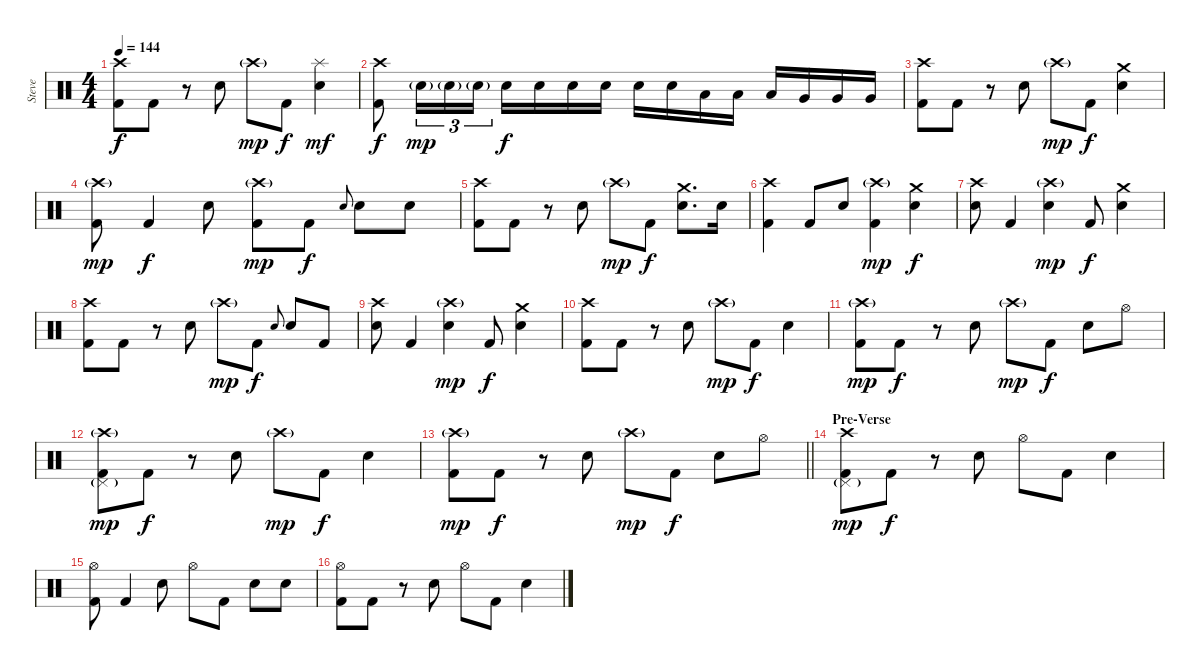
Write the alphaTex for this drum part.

\track ("Steve" "Steve") {instrument percussion}
\staff {score}
\articulation defaults
\ts (4 4)
\tempo 144
\clef neutral
\ks c
("Crash high (hit)" "Kick (hit) 2").8{dy f} "Kick (hit) 2".8 r.8 "Electric Snare (hit)".8 "Crash high (hit)"{g}.8{dy mp} "Kick (hit) 2".8{dy f} ("Splash (hit)" "Electric Snare (hit)").4{dy mf} |
("Crash high (hit)" "Kick (hit) 2").8{dy f} "Electric Snare (hit)"{g}.16{tu (3 2) dy mp} "Electric Snare (hit)"{g}.16{tu (3 2)} "Electric Snare (hit)"{g}.16{tu (3 2)} "Electric Snare (hit)".16{dy f} "Electric Snare (hit)".16 "Electric Snare (hit)".16 "Electric Snare (hit)".16 "Electric Snare (hit)".16 "Electric Snare (hit)".16 "Low Tom (hit)".16 "Low Tom (hit)".16 "Low Tom (hit)".16 "Very Low Tom (hit)".16 "Very Low Tom (hit)".16 "Very Low Tom (hit)".16 |
("Crash high (hit)" "Kick (hit) 2").8 "Kick (hit) 2".8 r.8 "Electric Snare (hit)".8 "Crash high (hit)"{g}.8{dy mp} "Kick (hit) 2".8{dy f} ("Crash medium (hit)" "Electric Snare (hit)").4 |
("Crash high (hit)"{g} "Kick (hit) 2").8{dy mp} "Kick (hit) 2".4{dy f} "Electric Snare (hit)".8 ("Crash high (hit)"{g} "Kick (hit) 2").8{dy mp} "Kick (hit) 2".8{dy f} "Electric Snare (hit)".8{gr onbeat} "Electric Snare (hit)".8 "Electric Snare (hit)".8 |
("Crash high (hit)" "Kick (hit) 2").8 "Kick (hit) 2".8 r.8 "Electric Snare (hit)".8 "Crash high (hit)"{g}.8{dy mp} "Kick (hit) 2".8{dy f} ("Crash medium (hit)" "Electric Snare (hit)").8{d} "Electric Snare (hit)".16 |
("Crash high (hit)" "Kick (hit) 2").4 "Kick (hit) 2".8 "Electric Snare (hit)".8 ("Crash high (hit)"{g} "Kick (hit) 2").4{dy mp} ("Crash medium (hit)" "Electric Snare (hit)").4{dy f} |
("Crash high (hit)" "Electric Snare (hit)").8 "Kick (hit) 2".4 ("Crash high (hit)"{g} "Electric Snare (hit)").4{dy mp} "Kick (hit) 2".8{dy f} ("Crash medium (hit)" "Electric Snare (hit)").4 |
("Crash high (hit)" "Kick (hit) 2").8 "Kick (hit) 2".8 r.8 "Electric Snare (hit)".8 "Crash high (hit)"{g}.8{dy mp} "Kick (hit) 2".8{dy f} "Electric Snare (hit)".8{gr onbeat} "Electric Snare (hit)".8 "Kick (hit) 2".8 |
("Crash high (hit)" "Electric Snare (hit)").8 "Kick (hit) 2".4 ("Crash high (hit)"{g} "Electric Snare (hit)").4{dy mp} "Kick (hit) 2".8{dy f} ("Crash medium (hit)" "Electric Snare (hit)").4 |
("Crash high (hit)" "Kick (hit) 2").8 "Kick (hit) 2".8 r.8 "Electric Snare (hit)".8 "Crash high (hit)"{g}.8{dy mp} "Kick (hit) 2".8{dy f} "Electric Snare (hit)".4 |
("Crash high (hit)"{g} "Kick (hit) 2").8{dy mp} "Kick (hit) 2".8{dy f} r.8 "Electric Snare (hit)".8 "Crash high (hit)"{g}.8{dy mp} "Kick (hit) 2".8{dy f} "Electric Snare (hit)".8 "Hi-Hat (open)".8 |
("Crash high (hit)"{g} "Pedal Hi-Hat (hit)"{g} "Kick (hit) 2").8{dy mp} "Kick (hit) 2".8{dy f} r.8 "Electric Snare (hit)".8 "Crash high (hit)"{g}.8{dy mp} "Kick (hit) 2".8{dy f} "Electric Snare (hit)".4 |
\barLineRight lightlight
("Crash high (hit)"{g} "Kick (hit) 2").8{dy mp} "Kick (hit) 2".8{dy f} r.8 "Electric Snare (hit)".8 "Crash high (hit)"{g}.8{dy mp} "Kick (hit) 2".8{dy f} "Electric Snare (hit)".8 "Hi-Hat (open)".8 |
\section ("" "Pre-Verse")
("Crash high (hit)" "Pedal Hi-Hat (hit)"{g} "Kick (hit) 2").8{dy mp} "Kick (hit) 2".8{dy f} r.8 "Electric Snare (hit)".8 "Hi-Hat (open)".8 "Kick (hit) 2".8 "Electric Snare (hit)".4 |
("Hi-Hat (open)" "Kick (hit) 2").8 "Kick (hit) 2".4 "Electric Snare (hit)".8 "Hi-Hat (open)".8 "Kick (hit) 2".8 "Electric Snare (hit)".8 "Electric Snare (hit)".8 |
("Hi-Hat (open)" "Kick (hit) 2").8 "Kick (hit) 2".8 r.8 "Electric Snare (hit)".8 "Hi-Hat (open)".8 "Kick (hit) 2".8 "Electric Snare (hit)".4
